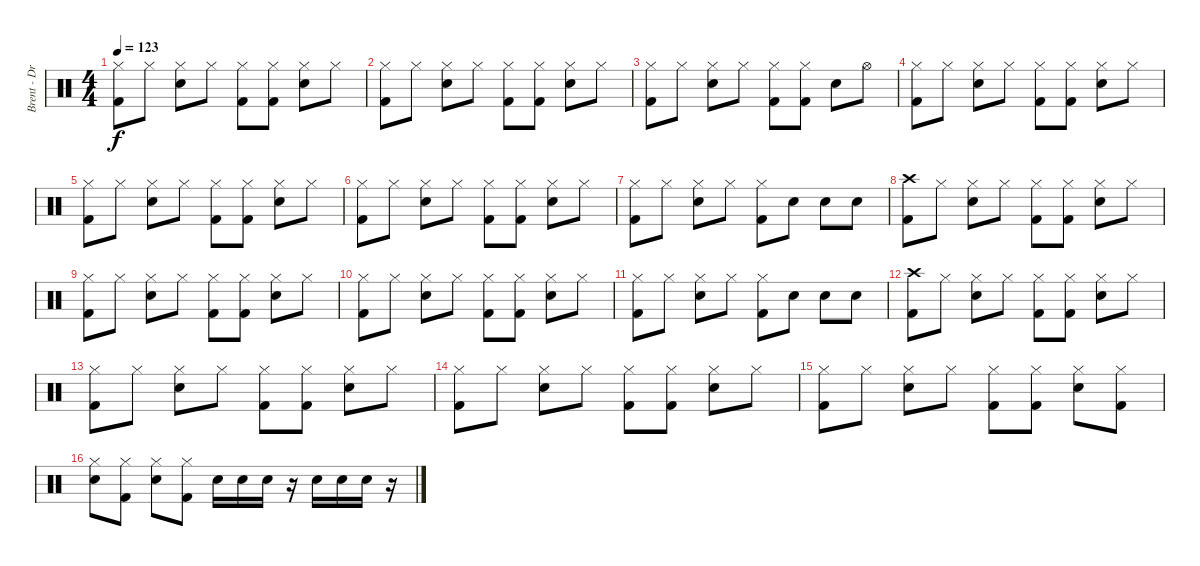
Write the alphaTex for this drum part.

\track ("Brent - Drums" "Brent - Dr") {instrument percussion}
\staff {score}
\articulation defaults
\ts (4 4)
\tempo 123
\clef neutral
\ks c
("Hi-Hat (closed)" "Kick (hit) 2").8{dy f} "Hi-Hat (closed)".8 ("Hi-Hat (closed)" "Snare (hit) 2").8 "Hi-Hat (closed)".8 ("Hi-Hat (closed)" "Kick (hit) 2").8 ("Hi-Hat (closed)" "Kick (hit) 2").8 ("Hi-Hat (closed)" "Snare (hit) 2").8 "Hi-Hat (closed)".8 |
("Hi-Hat (closed)" "Kick (hit) 2").8 "Hi-Hat (closed)".8 ("Hi-Hat (closed)" "Snare (hit) 2").8 "Hi-Hat (closed)".8 ("Hi-Hat (closed)" "Kick (hit) 2").8 ("Hi-Hat (closed)" "Kick (hit) 2").8 ("Hi-Hat (closed)" "Snare (hit) 2").8 "Hi-Hat (closed)".8 |
("Hi-Hat (closed)" "Kick (hit) 2").8 "Hi-Hat (closed)".8 ("Hi-Hat (closed)" "Snare (hit) 2").8 "Hi-Hat (closed)".8 ("Hi-Hat (closed)" "Kick (hit) 2").8 ("Hi-Hat (closed)" "Kick (hit) 2").8 "Snare (hit) 2".8 "Hi-Hat (open)".8 |
("Hi-Hat (closed)" "Kick (hit) 2").8 "Hi-Hat (closed)".8 ("Hi-Hat (closed)" "Snare (hit) 2").8 "Hi-Hat (closed)".8 ("Hi-Hat (closed)" "Kick (hit) 2").8 ("Hi-Hat (closed)" "Kick (hit) 2").8 ("Hi-Hat (closed)" "Snare (hit) 2").8 "Hi-Hat (closed)".8 |
("Hi-Hat (closed)" "Kick (hit) 2").8 "Hi-Hat (closed)".8 ("Hi-Hat (closed)" "Snare (hit) 2").8 "Hi-Hat (closed)".8 ("Hi-Hat (closed)" "Kick (hit) 2").8 ("Hi-Hat (closed)" "Kick (hit) 2").8 ("Hi-Hat (closed)" "Snare (hit) 2").8 "Hi-Hat (closed)".8 |
("Hi-Hat (closed)" "Kick (hit) 2").8 "Hi-Hat (closed)".8 ("Hi-Hat (closed)" "Snare (hit) 2").8 "Hi-Hat (closed)".8 ("Hi-Hat (closed)" "Kick (hit) 2").8 ("Hi-Hat (closed)" "Kick (hit) 2").8 ("Hi-Hat (closed)" "Snare (hit) 2").8 "Hi-Hat (closed)".8 |
("Hi-Hat (closed)" "Kick (hit) 2").8 "Hi-Hat (closed)".8 ("Hi-Hat (closed)" "Snare (hit) 2").8 "Hi-Hat (closed)".8 ("Hi-Hat (closed)" "Kick (hit) 2").8 "Snare (hit) 2".8 "Snare (hit) 2".8 "Snare (hit) 2".8 |
("Crash high (hit)" "Kick (hit) 2").8 "Hi-Hat (closed)".8 ("Hi-Hat (closed)" "Snare (hit) 2").8 "Hi-Hat (closed)".8 ("Hi-Hat (closed)" "Kick (hit) 2").8 ("Hi-Hat (closed)" "Kick (hit) 2").8 ("Hi-Hat (closed)" "Snare (hit) 2").8 "Hi-Hat (closed)".8 |
("Hi-Hat (closed)" "Kick (hit) 2").8 "Hi-Hat (closed)".8 ("Hi-Hat (closed)" "Snare (hit) 2").8 "Hi-Hat (closed)".8 ("Hi-Hat (closed)" "Kick (hit) 2").8 ("Hi-Hat (closed)" "Kick (hit) 2").8 ("Hi-Hat (closed)" "Snare (hit) 2").8 "Hi-Hat (closed)".8 |
("Hi-Hat (closed)" "Kick (hit) 2").8 "Hi-Hat (closed)".8 ("Hi-Hat (closed)" "Snare (hit) 2").8 "Hi-Hat (closed)".8 ("Hi-Hat (closed)" "Kick (hit) 2").8 ("Hi-Hat (closed)" "Kick (hit) 2").8 ("Hi-Hat (closed)" "Snare (hit) 2").8 "Hi-Hat (closed)".8 |
("Hi-Hat (closed)" "Kick (hit) 2").8 "Hi-Hat (closed)".8 ("Hi-Hat (closed)" "Snare (hit) 2").8 "Hi-Hat (closed)".8 ("Hi-Hat (closed)" "Kick (hit) 2").8 "Snare (hit) 2".8 "Snare (hit) 2".8 "Snare (hit) 2".8 |
("Crash high (hit)" "Kick (hit) 2").8 "Hi-Hat (closed)".8 ("Hi-Hat (closed)" "Snare (hit) 2").8 "Hi-Hat (closed)".8 ("Hi-Hat (closed)" "Kick (hit) 2").8 ("Hi-Hat (closed)" "Kick (hit) 2").8 ("Hi-Hat (closed)" "Snare (hit) 2").8 "Hi-Hat (closed)".8 |
("Hi-Hat (closed)" "Kick (hit) 2").8 "Hi-Hat (closed)".8 ("Hi-Hat (closed)" "Snare (hit) 2").8 "Hi-Hat (closed)".8 ("Hi-Hat (closed)" "Kick (hit) 2").8 ("Hi-Hat (closed)" "Kick (hit) 2").8 ("Hi-Hat (closed)" "Snare (hit) 2").8 "Hi-Hat (closed)".8 |
("Hi-Hat (closed)" "Kick (hit) 2").8 "Hi-Hat (closed)".8 ("Hi-Hat (closed)" "Snare (hit) 2").8 "Hi-Hat (closed)".8 ("Hi-Hat (closed)" "Kick (hit) 2").8 ("Hi-Hat (closed)" "Kick (hit) 2").8 ("Hi-Hat (closed)" "Snare (hit) 2").8 "Hi-Hat (closed)".8 |
("Hi-Hat (closed)" "Kick (hit) 2").8 "Hi-Hat (closed)".8 ("Hi-Hat (closed)" "Snare (hit) 2").8 "Hi-Hat (closed)".8 ("Hi-Hat (closed)" "Kick (hit) 2").8 ("Hi-Hat (closed)" "Kick (hit) 2").8 ("Hi-Hat (closed)" "Snare (hit) 2").8 ("Hi-Hat (closed)" "Kick (hit) 2").8 |
("Hi-Hat (closed)" "Snare (hit) 2").8 ("Hi-Hat (closed)" "Kick (hit) 2").8 ("Hi-Hat (closed)" "Snare (hit) 2").8 ("Hi-Hat (closed)" "Kick (hit) 2").8 "Snare (hit) 2".16 "Snare (hit) 2".16 "Snare (hit) 2".16 r.16 "Snare (hit) 2".16 "Snare (hit) 2".16 "Snare (hit) 2".16 r.16
